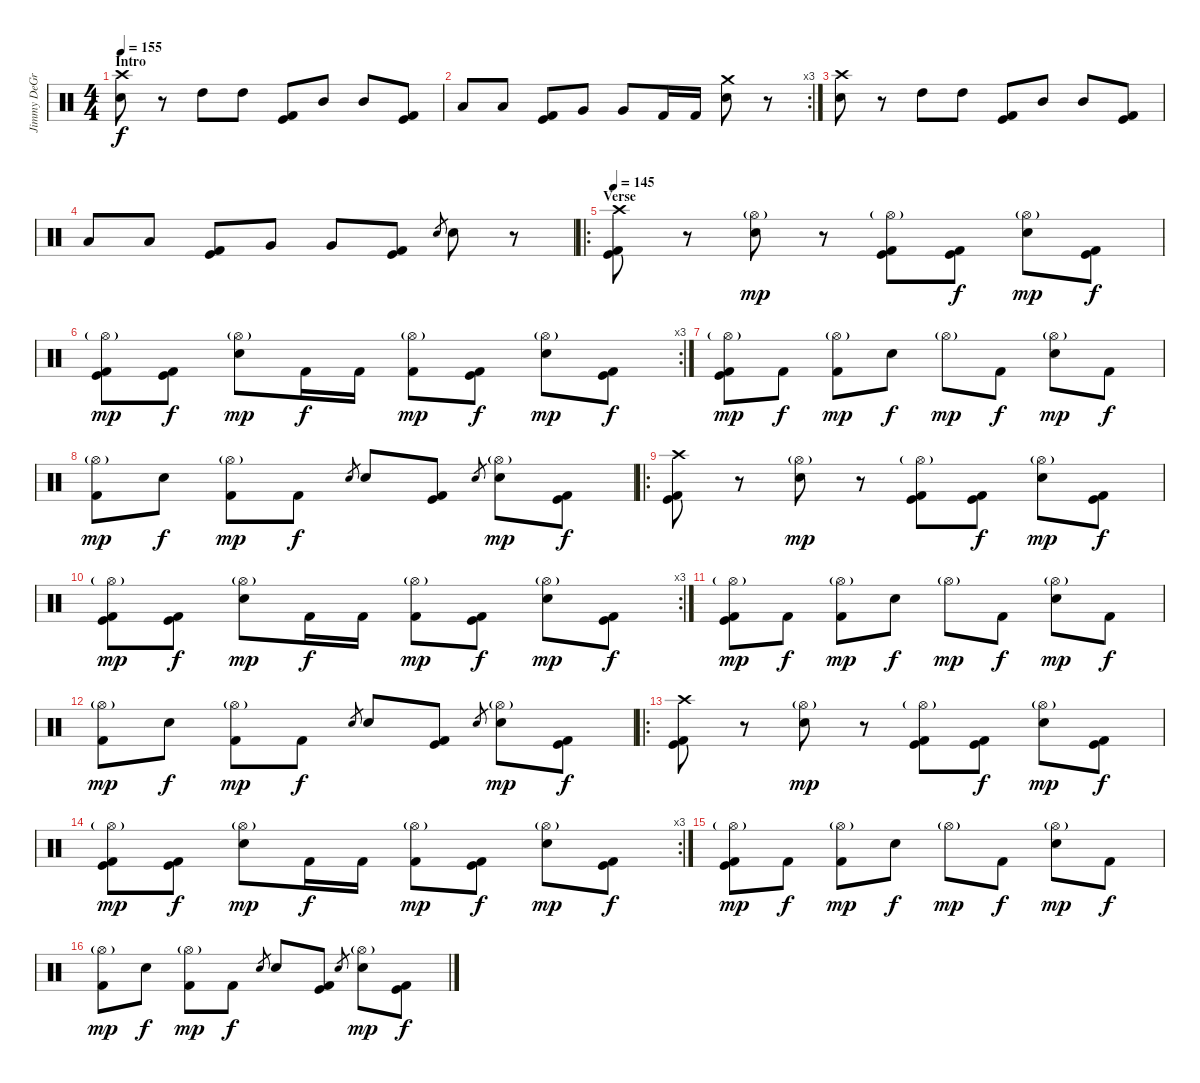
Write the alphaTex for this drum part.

\track ("Jimmy DeGrasso" "Jimmy DeGr") {instrument percussion}
\staff {score}
\articulation defaults
\ts (4 4)
\section ("" "Intro")
\tempo 155
\clef neutral
\ks c
("Crash high (hit)" "Electric Snare (hit)").8{dy f} r.8 "High Tom (hit)".8 "High Tom (hit)".8 ("Kick (hit)" "Kick (hit) 2").8 "Mid Tom (hit)".8 "Mid Tom (hit)".8 ("Kick (hit)" "Kick (hit) 2").8 |
\rc 3 "Low Tom (hit)".8 "Low Tom (hit)".8
("Kick (hit)" "Kick (hit) 2").8 "Very Low Tom (hit)".8 "Very Low Tom (hit)".8 "Kick (hit) 2".16 "Kick (hit) 2".16 ("Crash medium (hit)" "Electric Snare (hit)").8 r.8 |
("Crash high (hit)" "Electric Snare (hit)").8 r.8 "High Tom (hit)".8 "High Tom (hit)".8 ("Kick (hit)" "Kick (hit) 2").8 "Mid Tom (hit)".8 "Mid Tom (hit)".8 ("Kick (hit)" "Kick (hit) 2").8 |
"Low Tom (hit)".8 "Low Tom (hit)".8 ("Kick (hit)" "Kick (hit) 2").8 "Very Low Tom (hit)".8 "Very Low Tom (hit)".8 ("Kick (hit)" "Kick (hit) 2").8 "Electric Snare (hit)".8{gr} "Electric Snare (hit)".8 r.8 |
\ro
\section ("" "Verse")
\tempo 145
("Crash high (hit)" "Kick (hit)" "Kick (hit) 2").8 r.8 ("Hi-Hat (open)"{g} "Electric Snare (hit)").8{dy mp} r.8 ("Hi-Hat (open)"{g} "Kick (hit)" "Kick (hit) 2").8 ("Kick (hit)" "Kick (hit) 2").8{dy f} ("Hi-Hat (open)"{g} "Electric Snare (hit)").8{dy mp} ("Kick (hit)" "Kick (hit) 2").8{dy f} |
\rc 3
("Hi-Hat (open)"{g} "Kick (hit)" "Kick (hit) 2").8{dy mp} ("Kick (hit)" "Kick (hit) 2").8{dy f} ("Hi-Hat (open)"{g} "Electric Snare (hit)").8{dy mp} "Kick (hit) 2".16{dy f} "Kick (hit) 2".16 ("Hi-Hat (open)"{g} "Kick (hit) 2").8{dy mp} ("Kick (hit)" "Kick (hit) 2").8{dy f} ("Hi-Hat (open)"{g} "Electric Snare (hit)").8{dy mp} ("Kick (hit)" "Kick (hit) 2").8{dy f} |
("Hi-Hat (open)"{g} "Kick (hit)" "Kick (hit) 2").8{dy mp} "Kick (hit) 2".8{dy f} ("Hi-Hat (open)"{g} "Kick (hit) 2").8{dy mp} "Electric Snare (hit)".8{dy f} "Hi-Hat (open)"{g}.8{dy mp} "Kick (hit) 2".8{dy f} ("Hi-Hat (open)"{g} "Electric Snare (hit)").8{dy mp} "Kick (hit) 2".8{dy f} |
("Hi-Hat (open)"{g} "Kick (hit) 2").8{dy mp} "Electric Snare (hit)".8{dy f} ("Hi-Hat (open)"{g} "Kick (hit) 2").8{dy mp} "Kick (hit) 2".8{dy f} "Electric Snare (hit)".8{gr} "Electric Snare (hit)".8 ("Kick (hit)" "Kick (hit) 2").8 "Electric Snare (hit)".8{gr} ("Hi-Hat (open)"{g} "Electric Snare (hit)").8{dy mp} ("Kick (hit)" "Kick (hit) 2").8{dy f} |
\ro
("Crash high (hit)" "Kick (hit)" "Kick (hit) 2").8 r.8 ("Hi-Hat (open)"{g} "Electric Snare (hit)").8{dy mp} r.8 ("Hi-Hat (open)"{g} "Kick (hit)" "Kick (hit) 2").8 ("Kick (hit)" "Kick (hit) 2").8{dy f} ("Hi-Hat (open)"{g} "Electric Snare (hit)").8{dy mp} ("Kick (hit)" "Kick (hit) 2").8{dy f} |
\rc 3
("Hi-Hat (open)"{g} "Kick (hit)" "Kick (hit) 2").8{dy mp} ("Kick (hit)" "Kick (hit) 2").8{dy f} ("Hi-Hat (open)"{g} "Electric Snare (hit)").8{dy mp} "Kick (hit) 2".16{dy f} "Kick (hit) 2".16 ("Hi-Hat (open)"{g} "Kick (hit) 2").8{dy mp} ("Kick (hit)" "Kick (hit) 2").8{dy f} ("Hi-Hat (open)"{g} "Electric Snare (hit)").8{dy mp} ("Kick (hit)" "Kick (hit) 2").8{dy f} |
("Hi-Hat (open)"{g} "Kick (hit)" "Kick (hit) 2").8{dy mp} "Kick (hit) 2".8{dy f} ("Hi-Hat (open)"{g} "Kick (hit) 2").8{dy mp} "Electric Snare (hit)".8{dy f} "Hi-Hat (open)"{g}.8{dy mp} "Kick (hit) 2".8{dy f} ("Hi-Hat (open)"{g} "Electric Snare (hit)").8{dy mp} "Kick (hit) 2".8{dy f} |
("Hi-Hat (open)"{g} "Kick (hit) 2").8{dy mp} "Electric Snare (hit)".8{dy f} ("Hi-Hat (open)"{g} "Kick (hit) 2").8{dy mp} "Kick (hit) 2".8{dy f} "Electric Snare (hit)".8{gr} "Electric Snare (hit)".8 ("Kick (hit)" "Kick (hit) 2").8 "Electric Snare (hit)".8{gr} ("Hi-Hat (open)"{g} "Electric Snare (hit)").8{dy mp} ("Kick (hit)" "Kick (hit) 2").8{dy f} |
\ro
("Crash high (hit)" "Kick (hit)" "Kick (hit) 2").8 r.8 ("Hi-Hat (open)"{g} "Electric Snare (hit)").8{dy mp} r.8 ("Hi-Hat (open)"{g} "Kick (hit)" "Kick (hit) 2").8 ("Kick (hit)" "Kick (hit) 2").8{dy f} ("Hi-Hat (open)"{g} "Electric Snare (hit)").8{dy mp} ("Kick (hit)" "Kick (hit) 2").8{dy f} |
\rc 3
("Hi-Hat (open)"{g} "Kick (hit)" "Kick (hit) 2").8{dy mp} ("Kick (hit)" "Kick (hit) 2").8{dy f} ("Hi-Hat (open)"{g} "Electric Snare (hit)").8{dy mp} "Kick (hit) 2".16{dy f} "Kick (hit) 2".16 ("Hi-Hat (open)"{g} "Kick (hit) 2").8{dy mp} ("Kick (hit)" "Kick (hit) 2").8{dy f} ("Hi-Hat (open)"{g} "Electric Snare (hit)").8{dy mp} ("Kick (hit)" "Kick (hit) 2").8{dy f} |
("Hi-Hat (open)"{g} "Kick (hit)" "Kick (hit) 2").8{dy mp} "Kick (hit) 2".8{dy f} ("Hi-Hat (open)"{g} "Kick (hit) 2").8{dy mp} "Electric Snare (hit)".8{dy f} "Hi-Hat (open)"{g}.8{dy mp} "Kick (hit) 2".8{dy f} ("Hi-Hat (open)"{g} "Electric Snare (hit)").8{dy mp} "Kick (hit) 2".8{dy f} |
("Hi-Hat (open)"{g} "Kick (hit) 2").8{dy mp} "Electric Snare (hit)".8{dy f} ("Hi-Hat (open)"{g} "Kick (hit) 2").8{dy mp} "Kick (hit) 2".8{dy f} "Electric Snare (hit)".8{gr} "Electric Snare (hit)".8 ("Kick (hit)" "Kick (hit) 2").8 "Electric Snare (hit)".8{gr} ("Hi-Hat (open)"{g} "Electric Snare (hit)").8{dy mp} ("Kick (hit)" "Kick (hit) 2").8{dy f}
